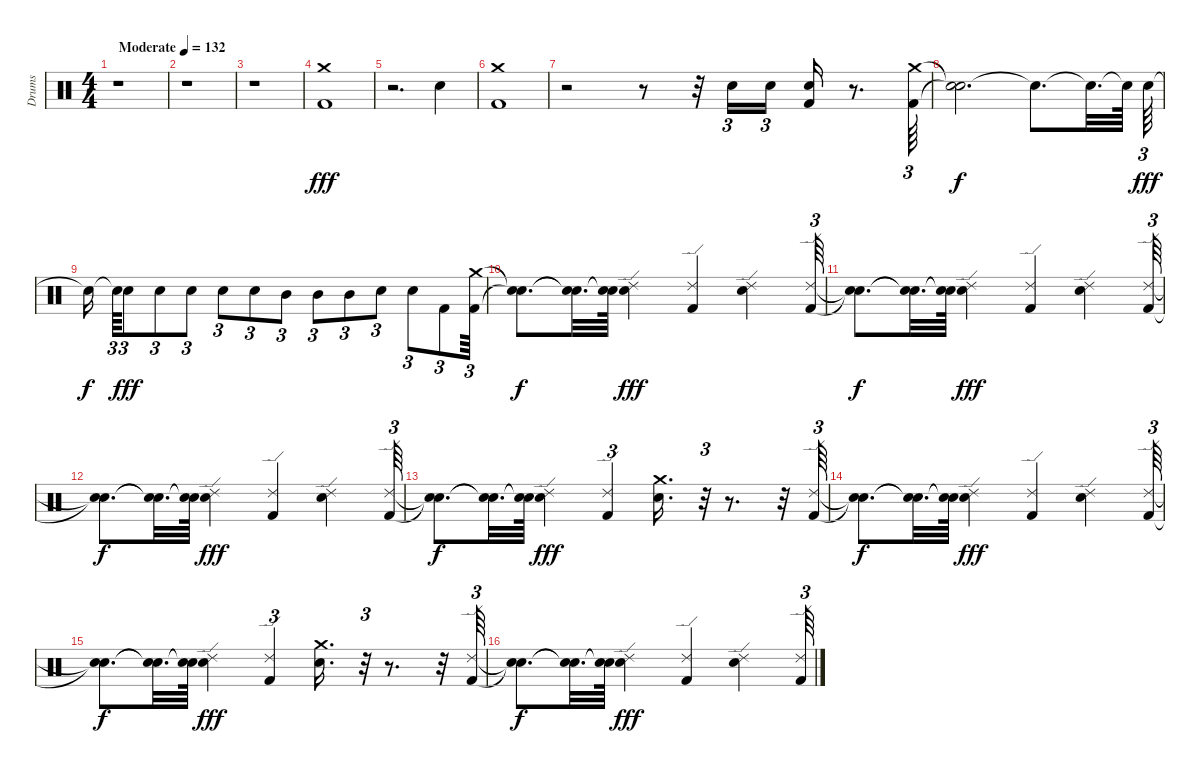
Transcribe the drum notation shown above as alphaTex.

\track ("Drums" "Drums") {instrument percussion}
\staff {score}
\articulation defaults
\ts (4 4)
\tempo (132 "Moderate")
\clef neutral
\ks c
r.1{dy fff} |
r.1 |
r.1 |
("Crash medium (hit)" "Kick (hit) 2").1{volume 13 balance 8} |
r.2{d} "Electric Snare (hit)".4 |
("Crash medium (hit)" "Kick (hit) 2").1 |
r.2 r.8 r.32 "Electric Snare (hit)".16{tu (3 2)} "Electric Snare (hit)".16{tu (3 2)} ("Electric Snare (hit)" "Kick (hit) 2").16 r.8{d} ("Crash medium (hit)" "Kick (hit) 2").64{tu (3 2)} |
("Snare (hit)"{t} "Snare (hit)"{t}).2{d dy f} "Snare (hit)"{t}.8{d} "Snare (hit)"{t}.32{d} "Snare (hit)"{t}.64 "Electric Snare (hit)".64{tu (3 2) dy fff} |
"Snare (hit)"{t}.16{dy f} "Snare (hit)"{t}.64{tu (3 2)} "Electric Snare (hit)".8{tu (3 2) dy fff} "Electric Snare (hit)".8{tu (3 2)} "Electric Snare (hit)".8{tu (3 2)} "Electric Snare (hit)".8{tu (3 2)} "Electric Snare (hit)".8{tu (3 2)} "Mid Tom (hit)".8{tu (3 2)} "Mid Tom (hit)".8{tu (3 2)} "Mid Tom (hit)".8{tu (3 2)} "Electric Snare (hit)".8{tu (3 2)} "Electric Snare (hit)".8{tu (3 2)} "Kick (hit) 2".8{tu (3 2)} ("Crash medium (hit)" "Kick (hit) 2").64{tu (3 2)} |
("Snare (hit)"{t} "Snare (hit)"{t}).8{d dy f} ("Snare (hit)"{t} "Snare (hit)"{t}).32{d} ("Snare (hit)"{t} "Snare (hit)"{t}).64 ("Electric Snare (hit)" "Ride (edge) 2").4{dy fff} ("Ride (edge) 2" "Kick (hit) 2").4 ("Ride (edge) 2" "Electric Snare (hit)").4 ("Kick (hit) 2" "Ride (edge) 2").64{tu (3 2)} |
("Snare (hit)"{t} "Snare (hit)"{t}).8{d dy f} ("Snare (hit)"{t} "Snare (hit)"{t}).32{d} ("Snare (hit)"{t} "Snare (hit)"{t}).64 ("Electric Snare (hit)" "Ride (edge) 2").4{dy fff} ("Kick (hit) 2" "Ride (edge) 2").4 ("Electric Snare (hit)" "Ride (edge) 2").4 ("Ride (edge) 2" "Kick (hit) 2").64{tu (3 2)} |
("Snare (hit)"{t} "Snare (hit)"{t}).8{d dy f} ("Snare (hit)"{t} "Snare (hit)"{t}).32{d} ("Snare (hit)"{t} "Snare (hit)"{t}).64 ("Ride (edge) 2" "Electric Snare (hit)").4{dy fff} ("Ride (edge) 2" "Kick (hit) 2").4 ("Ride (edge) 2" "Electric Snare (hit)").4 ("Ride (edge) 2" "Kick (hit) 2").64{tu (3 2)} |
("Snare (hit)"{t} "Snare (hit)"{t}).8{d dy f} ("Snare (hit)"{t} "Snare (hit)"{t}).32{d} ("Snare (hit)"{t} "Snare (hit)"{t}).64 ("Ride (edge) 2" "Electric Snare (hit)").4{dy fff} ("Ride (edge) 2" "Kick (hit) 2").4{tu (3 2)} ("Electric Snare (hit)" "Crash medium (hit)").16{d} r.32{tu (3 2)} r.8{d} r.32 ("Ride (edge) 2" "Kick (hit) 2").64{tu (3 2)} |
("Snare (hit)"{t} "Snare (hit)"{t}).8{d dy f} ("Snare (hit)"{t} "Snare (hit)"{t}).32{d} ("Snare (hit)"{t} "Snare (hit)"{t}).64 ("Ride (edge) 2" "Electric Snare (hit)").4{dy fff} ("Ride (edge) 2" "Kick (hit) 2").4 ("Electric Snare (hit)" "Ride (edge) 2").4 ("Kick (hit) 2" "Ride (edge) 2").64{tu (3 2)} |
("Snare (hit)"{t} "Snare (hit)"{t}).8{d dy f} ("Snare (hit)"{t} "Snare (hit)"{t}).32{d} ("Snare (hit)"{t} "Snare (hit)"{t}).64 ("Ride (edge) 2" "Electric Snare (hit)").4{dy fff} ("Ride (edge) 2" "Kick (hit) 2").4{tu (3 2)} ("Crash medium (hit)" "Electric Snare (hit)").16{d} r.32{tu (3 2)} r.8{d} r.32 ("Ride (edge) 2" "Kick (hit) 2").64{tu (3 2)} |
("Snare (hit)"{t} "Snare (hit)"{t}).8{d dy f} ("Snare (hit)"{t} "Snare (hit)"{t}).32{d} ("Snare (hit)"{t} "Snare (hit)"{t}).64 ("Electric Snare (hit)" "Ride (edge) 2").4{dy fff} ("Ride (edge) 2" "Kick (hit) 2").4 ("Ride (edge) 2" "Electric Snare (hit)").4 ("Ride (edge) 2" "Kick (hit) 2").64{tu (3 2)}
